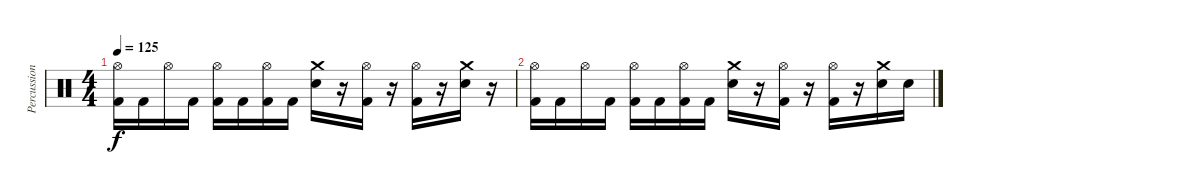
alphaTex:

\track ("Percussion" "Percussion") {instrument percussion}
\staff {score}
\articulation defaults
\ts (4 4)
\tempo 125
\clef neutral
\ks c
("Hi-Hat (open)" "Kick (hit) 2").16{dy f} "Kick (hit) 2".16 "Hi-Hat (open)".16 "Kick (hit) 2".16 ("Hi-Hat (open)" "Kick (hit) 2").16 "Kick (hit) 2".16 ("Hi-Hat (open)" "Kick (hit) 2").16 "Kick (hit) 2".16 ("Crash medium (hit)" "Electric Snare (hit)").16 r.16 ("Hi-Hat (open)" "Kick (hit) 2").16 r.16 ("Hi-Hat (open)" "Kick (hit) 2").16 r.16 ("Crash medium (hit)" "Electric Snare (hit)").16 r.16 |
("Hi-Hat (open)" "Kick (hit) 2").16 "Kick (hit) 2".16 "Hi-Hat (open)".16 "Kick (hit) 2".16 ("Hi-Hat (open)" "Kick (hit) 2").16 "Kick (hit) 2".16 ("Hi-Hat (open)" "Kick (hit) 2").16 "Kick (hit) 2".16 ("Crash medium (hit)" "Electric Snare (hit)").16 r.16 ("Hi-Hat (open)" "Kick (hit) 2").16 r.16 ("Hi-Hat (open)" "Kick (hit) 2").16 r.16 ("Crash medium (hit)" "Electric Snare (hit)").16 "Electric Snare (hit)".16
